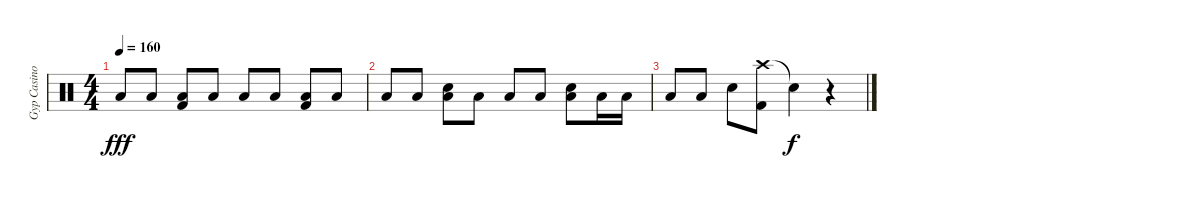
\track ("Gyp Casino" "Gyp Casino") {instrument percussion}
\staff {score}
\articulation defaults
\ts (4 4)
\tempo 160
\clef neutral
\ks c "Low Tom (hit)".8{dy fff} "Low Tom (hit)".8
("Low Tom (hit)" "Kick (hit) 2").8 "Low Tom (hit)".8 "Low Tom (hit)".8 "Low Tom (hit)".8 ("Low Tom (hit)" "Kick (hit) 2").8 "Low Tom (hit)".8 |
"Low Tom (hit)".8 "Low Tom (hit)".8 ("Low Tom (hit)" "Snare (hit) 2").8 "Low Tom (hit)".8 "Low Tom (hit)".8 "Low Tom (hit)".8 ("Low Tom (hit)" "Snare (hit) 2").8 "Low Tom (hit)".16 "Low Tom (hit)".16 |
"Low Tom (hit)".8 "Low Tom (hit)".8 "Snare (hit) 2".8 ("Crash high (hit)" "Kick (hit) 2").8 "Snare (hit)"{t}.4{dy f} r.4
